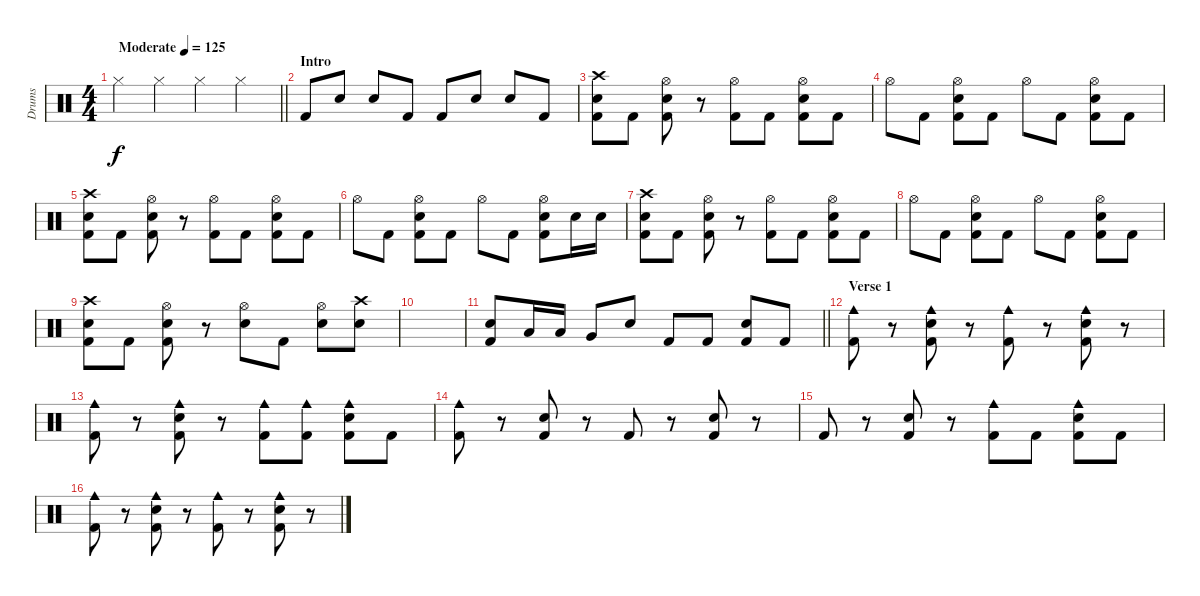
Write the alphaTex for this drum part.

\track ("Drums" "Drums") {instrument percussion}
\staff {score}
\articulation defaults
\ts (4 4)
\tempo (125 "Moderate")
\clef neutral
\barLineRight lightlight
\ks c "Hi-Hat (closed)".4{dy f} "Hi-Hat (closed)".4 "Hi-Hat (closed)".4 "Hi-Hat (closed)".4
|
\section ("" "Intro")
"Kick (hit) 2".8 "Snare (hit) 2".8 "Snare (hit) 2".8 "Kick (hit) 2".8 "Kick (hit) 2".8 "Snare (hit) 2".8 "Snare (hit) 2".8 "Kick (hit) 2".8 |
("Crash high (hit)" "Snare (hit) 2" "Kick (hit) 2").8 "Kick (hit) 2".8 ("Hi-Hat (open)" "Snare (hit) 2" "Kick (hit) 2").8 r.8 ("Hi-Hat (open)" "Kick (hit) 2").8 "Kick (hit) 2".8 ("Hi-Hat (open)" "Snare (hit) 2" "Kick (hit) 2").8 "Kick (hit) 2".8 |
"Hi-Hat (open)".8 "Kick (hit) 2".8 ("Hi-Hat (open)" "Snare (hit) 2" "Kick (hit) 2").8 "Kick (hit) 2".8 "Hi-Hat (open)".8 "Kick (hit) 2".8 ("Hi-Hat (open)" "Snare (hit) 2" "Kick (hit) 2").8 "Kick (hit) 2".8 |
("Crash high (hit)" "Snare (hit) 2" "Kick (hit) 2").8 "Kick (hit) 2".8 ("Hi-Hat (open)" "Snare (hit) 2" "Kick (hit) 2").8 r.8 ("Hi-Hat (open)" "Kick (hit) 2").8 "Kick (hit) 2".8 ("Hi-Hat (open)" "Snare (hit) 2" "Kick (hit) 2").8 "Kick (hit) 2".8 |
"Hi-Hat (open)".8 "Kick (hit) 2".8 ("Hi-Hat (open)" "Snare (hit) 2" "Kick (hit) 2").8 "Kick (hit) 2".8 "Hi-Hat (open)".8 "Kick (hit) 2".8 ("Hi-Hat (open)" "Snare (hit) 2" "Kick (hit) 2").8 "Snare (hit) 2".16 "Snare (hit) 2".16 |
("Crash high (hit)" "Snare (hit) 2" "Kick (hit) 2").8 "Kick (hit) 2".8 ("Hi-Hat (open)" "Snare (hit) 2" "Kick (hit) 2").8 r.8 ("Hi-Hat (open)" "Kick (hit) 2").8 "Kick (hit) 2".8 ("Hi-Hat (open)" "Snare (hit) 2" "Kick (hit) 2").8 "Kick (hit) 2".8 |
"Hi-Hat (open)".8 "Kick (hit) 2".8 ("Hi-Hat (open)" "Snare (hit) 2" "Kick (hit) 2").8 "Kick (hit) 2".8 "Hi-Hat (open)".8 "Kick (hit) 2".8 ("Hi-Hat (open)" "Snare (hit) 2" "Kick (hit) 2").8 "Kick (hit) 2".8 |
("Crash high (hit)" "Snare (hit) 2" "Kick (hit) 2").8 "Kick (hit) 2".8 ("Hi-Hat (open)" "Snare (hit) 2" "Kick (hit) 2").8 r.8 ("Hi-Hat (open)" "Snare (hit) 2").8 "Kick (hit) 2".8 ("Hi-Hat (open)" "Snare (hit) 2").8 ("Crash high (hit)" "Snare (hit) 2").8 |
|
\barLineRight lightlight
("Snare (hit) 2" "Kick (hit) 2").8 "Low Tom (hit)".16 "Low Tom (hit)".16 "Very Low Tom (hit)".8 "Snare (hit) 2".8 "Kick (hit) 2".8 "Kick (hit) 2".8 ("Snare (hit) 2" "Kick (hit) 2").8 "Kick (hit) 2".8 |
\section ("" "Verse 1")
("Cowbell medium (hit)" "Kick (hit) 2").8 r.8 ("Cowbell medium (hit)" "Snare (hit) 2" "Kick (hit) 2").8 r.8 ("Cowbell medium (hit)" "Kick (hit) 2").8 r.8 ("Cowbell medium (hit)" "Snare (hit) 2" "Kick (hit) 2").8 r.8 |
("Cowbell medium (hit)" "Kick (hit) 2").8 r.8 ("Cowbell medium (hit)" "Snare (hit) 2" "Kick (hit) 2").8 r.8 ("Cowbell medium (hit)" "Kick (hit) 2").8 ("Cowbell medium (hit)" "Kick (hit) 2").8 ("Cowbell medium (hit)" "Snare (hit) 2" "Kick (hit) 2").8 "Kick (hit) 2".8 |
("Cowbell medium (hit)" "Kick (hit) 2").8 r.8 ("Snare (hit) 2" "Kick (hit) 2").8 r.8 "Kick (hit) 2".8 r.8 ("Snare (hit) 2" "Kick (hit) 2").8 r.8 |
"Kick (hit) 2".8 r.8 ("Snare (hit) 2" "Kick (hit) 2").8 r.8 ("Cowbell medium (hit)" "Kick (hit) 2").8 "Kick (hit) 2".8 ("Cowbell medium (hit)" "Snare (hit) 2" "Kick (hit) 2").8 "Kick (hit) 2".8 |
("Cowbell medium (hit)" "Kick (hit) 2").8 r.8 ("Cowbell medium (hit)" "Snare (hit) 2" "Kick (hit) 2").8 r.8 ("Cowbell medium (hit)" "Kick (hit) 2").8 r.8 ("Cowbell medium (hit)" "Snare (hit) 2" "Kick (hit) 2").8 r.8
